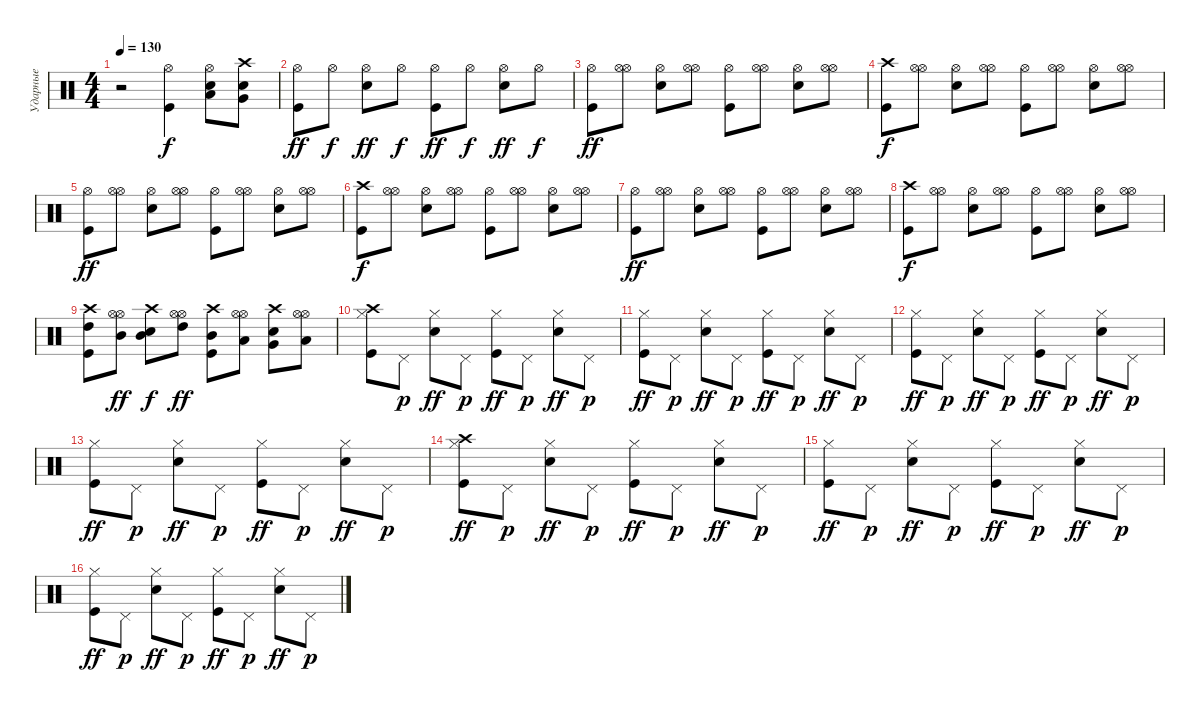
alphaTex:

\track ("Ударные" "Ударные") {instrument percussion}
\staff {score}
\articulation defaults
\ts (4 4)
\tempo 130
\clef neutral
\ks c
r.2{dy f} ("Kick (hit)" "Hi-Hat (open)").4 ("Electric Snare (hit)" "Hi-Hat (open)" "Low Floor Tom (hit)").8 ("Electric Snare (hit)" "Crash high (hit)" "Very Low Tom (hit)").8 |
("Kick (hit)" "Hi-Hat (open)").8{dy ff} "Hi-Hat (open)".8{dy f} ("Electric Snare (hit)" "Hi-Hat (open)").8{dy ff} "Hi-Hat (open)".8{dy f} ("Kick (hit)" "Hi-Hat (open)").8{dy ff} "Hi-Hat (open)".8{dy f} ("Electric Snare (hit)" "Hi-Hat (open)").8{dy ff} "Hi-Hat (open)".8{dy f} |
("Kick (hit)" "Hi-Hat (open)").8{dy ff} ("Hi-Hat (open)" "Hi-Hat (open)").8 ("Electric Snare (hit)" "Hi-Hat (open)").8 ("Hi-Hat (open)" "Hi-Hat (open)").8 ("Kick (hit)" "Hi-Hat (open)").8 ("Hi-Hat (open)" "Hi-Hat (open)").8 ("Electric Snare (hit)" "Hi-Hat (open)").8 ("Hi-Hat (open)" "Hi-Hat (open)").8 |
("Kick (hit)" "Crash high (hit)").8{dy f} ("Hi-Hat (open)" "Hi-Hat (open)").8 ("Electric Snare (hit)" "Hi-Hat (open)").8 ("Hi-Hat (open)" "Hi-Hat (open)").8 ("Kick (hit)" "Hi-Hat (open)").8 ("Hi-Hat (open)" "Hi-Hat (open)").8 ("Electric Snare (hit)" "Hi-Hat (open)").8 ("Hi-Hat (open)" "Hi-Hat (open)").8 |
("Kick (hit)" "Hi-Hat (open)").8{dy ff} ("Hi-Hat (open)" "Hi-Hat (open)").8 ("Electric Snare (hit)" "Hi-Hat (open)").8 ("Hi-Hat (open)" "Hi-Hat (open)").8 ("Kick (hit)" "Hi-Hat (open)").8 ("Hi-Hat (open)" "Hi-Hat (open)").8 ("Electric Snare (hit)" "Hi-Hat (open)").8 ("Hi-Hat (open)" "Hi-Hat (open)").8 |
("Kick (hit)" "Crash high (hit)").8{dy f} ("Hi-Hat (open)" "Hi-Hat (open)").8 ("Electric Snare (hit)" "Hi-Hat (open)").8 ("Hi-Hat (open)" "Hi-Hat (open)").8 ("Kick (hit)" "Hi-Hat (open)").8 ("Hi-Hat (open)" "Hi-Hat (open)").8 ("Electric Snare (hit)" "Hi-Hat (open)").8 ("Hi-Hat (open)" "Hi-Hat (open)").8 |
("Kick (hit)" "Hi-Hat (open)").8{dy ff} ("Hi-Hat (open)" "Hi-Hat (open)").8 ("Electric Snare (hit)" "Hi-Hat (open)").8 ("Hi-Hat (open)" "Hi-Hat (open)").8 ("Kick (hit)" "Hi-Hat (open)").8 ("Hi-Hat (open)" "Hi-Hat (open)").8 ("Electric Snare (hit)" "Hi-Hat (open)").8 ("Hi-Hat (open)" "Hi-Hat (open)").8 |
("Kick (hit)" "Crash high (hit)").8{dy f} ("Hi-Hat (open)" "Hi-Hat (open)").8 ("Electric Snare (hit)" "Hi-Hat (open)").8 ("Hi-Hat (open)" "Hi-Hat (open)").8 ("Kick (hit)" "Hi-Hat (open)").8 ("Hi-Hat (open)" "Hi-Hat (open)").8 ("Electric Snare (hit)" "Hi-Hat (open)").8 ("Hi-Hat (open)" "Hi-Hat (open)").8 |
("Kick (hit)" "Crash high (hit)" "High Tom (hit)").8 ("Hi-Hat (open)" "Hi-Hat (open)" "Mid Tom (hit)").8{dy ff} ("Electric Snare (hit)" "Crash high (hit)" "Mid Tom (hit)").8{dy f} ("Hi-Hat (open)" "Hi-Hat (open)" "High Tom (hit)").8{dy ff} ("Kick (hit)" "Crash high (hit)" "Mid Tom (hit)").8 ("Hi-Hat (open)" "Hi-Hat (open)" "Low Tom (hit)").8 ("Electric Snare (hit)" "Crash high (hit)" "Very Low Tom (hit)").8 ("Hi-Hat (open)" "Hi-Hat (open)" "Low Floor Tom (hit)").8 |
("Kick (hit)" "Hi-Hat (closed)" "Crash high (hit)").8 "Pedal Hi-Hat (hit)".8{dy p} ("Electric Snare (hit)" "Hi-Hat (closed)").8{dy ff} "Pedal Hi-Hat (hit)".8{dy p} ("Kick (hit)" "Hi-Hat (closed)").8{dy ff} "Pedal Hi-Hat (hit)".8{dy p} ("Electric Snare (hit)" "Hi-Hat (closed)").8{dy ff} "Pedal Hi-Hat (hit)".8{dy p} |
("Kick (hit)" "Hi-Hat (closed)").8{dy ff} "Pedal Hi-Hat (hit)".8{dy p} ("Electric Snare (hit)" "Hi-Hat (closed)").8{dy ff} "Pedal Hi-Hat (hit)".8{dy p} ("Kick (hit)" "Hi-Hat (closed)").8{dy ff} "Pedal Hi-Hat (hit)".8{dy p} ("Electric Snare (hit)" "Hi-Hat (closed)").8{dy ff} "Pedal Hi-Hat (hit)".8{dy p} |
("Kick (hit)" "Hi-Hat (closed)").8{dy ff} "Pedal Hi-Hat (hit)".8{dy p} ("Electric Snare (hit)" "Hi-Hat (closed)").8{dy ff} "Pedal Hi-Hat (hit)".8{dy p} ("Kick (hit)" "Hi-Hat (closed)").8{dy ff} "Pedal Hi-Hat (hit)".8{dy p} ("Electric Snare (hit)" "Hi-Hat (closed)").8{dy ff} "Pedal Hi-Hat (hit)".8{dy p} |
("Kick (hit)" "Hi-Hat (closed)").8{dy ff} "Pedal Hi-Hat (hit)".8{dy p} ("Electric Snare (hit)" "Hi-Hat (closed)").8{dy ff} "Pedal Hi-Hat (hit)".8{dy p} ("Kick (hit)" "Hi-Hat (closed)").8{dy ff} "Pedal Hi-Hat (hit)".8{dy p} ("Electric Snare (hit)" "Hi-Hat (closed)").8{dy ff} "Pedal Hi-Hat (hit)".8{dy p} |
("Kick (hit)" "Hi-Hat (closed)" "Crash high (hit)").8{dy ff} "Pedal Hi-Hat (hit)".8{dy p} ("Electric Snare (hit)" "Hi-Hat (closed)").8{dy ff} "Pedal Hi-Hat (hit)".8{dy p} ("Kick (hit)" "Hi-Hat (closed)").8{dy ff} "Pedal Hi-Hat (hit)".8{dy p} ("Electric Snare (hit)" "Hi-Hat (closed)").8{dy ff} "Pedal Hi-Hat (hit)".8{dy p} |
("Kick (hit)" "Hi-Hat (closed)").8{dy ff} "Pedal Hi-Hat (hit)".8{dy p} ("Electric Snare (hit)" "Hi-Hat (closed)").8{dy ff} "Pedal Hi-Hat (hit)".8{dy p} ("Kick (hit)" "Hi-Hat (closed)").8{dy ff} "Pedal Hi-Hat (hit)".8{dy p} ("Electric Snare (hit)" "Hi-Hat (closed)").8{dy ff} "Pedal Hi-Hat (hit)".8{dy p} |
("Kick (hit)" "Hi-Hat (closed)").8{dy ff} "Pedal Hi-Hat (hit)".8{dy p} ("Electric Snare (hit)" "Hi-Hat (closed)").8{dy ff} "Pedal Hi-Hat (hit)".8{dy p} ("Kick (hit)" "Hi-Hat (closed)").8{dy ff} "Pedal Hi-Hat (hit)".8{dy p} ("Electric Snare (hit)" "Hi-Hat (closed)").8{dy ff} "Pedal Hi-Hat (hit)".8{dy p}
